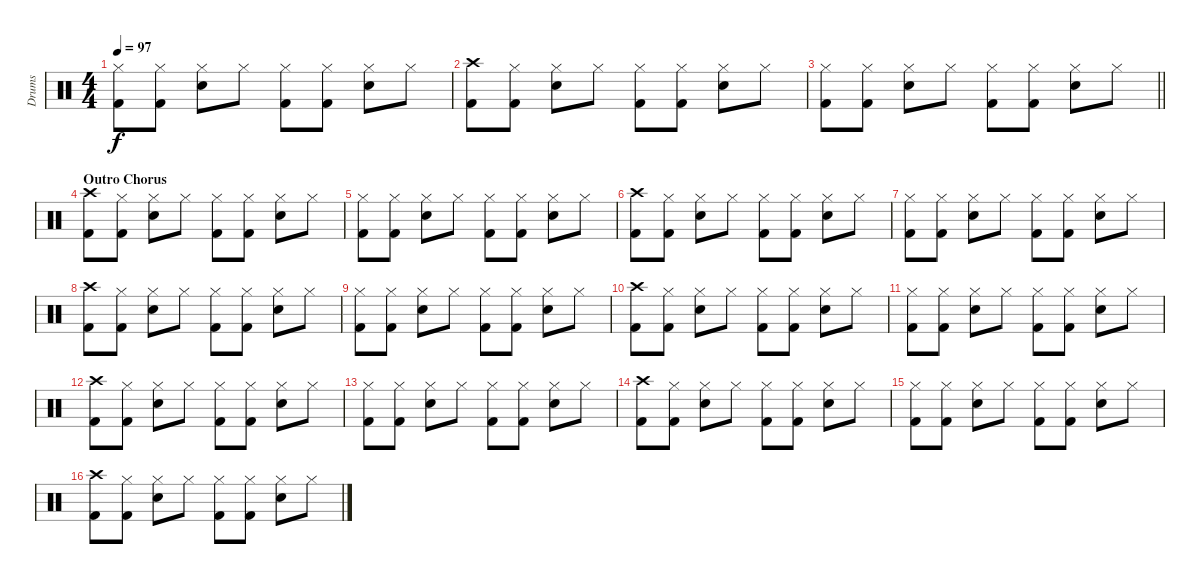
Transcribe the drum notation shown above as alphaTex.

\track ("Drums" "Drums") {instrument percussion}
\staff {score}
\articulation defaults
\ts (4 4)
\tempo 97
\clef neutral
\ks c
("Hi-Hat (closed)" "Kick (hit) 2").8{dy f} ("Hi-Hat (closed)" "Kick (hit) 2").8 ("Hi-Hat (closed)" "Electric Snare (hit)").8 "Hi-Hat (closed)".8 ("Hi-Hat (closed)" "Kick (hit) 2").8 ("Hi-Hat (closed)" "Kick (hit) 2").8 ("Hi-Hat (closed)" "Electric Snare (hit)").8 "Hi-Hat (closed)".8 |
("Crash high (hit)" "Kick (hit) 2").8 ("Hi-Hat (closed)" "Kick (hit) 2").8 ("Hi-Hat (closed)" "Electric Snare (hit)").8 "Hi-Hat (closed)".8 ("Hi-Hat (closed)" "Kick (hit) 2").8 ("Hi-Hat (closed)" "Kick (hit) 2").8 ("Hi-Hat (closed)" "Electric Snare (hit)").8 "Hi-Hat (closed)".8 |
\barLineRight lightlight
("Hi-Hat (closed)" "Kick (hit) 2").8 ("Hi-Hat (closed)" "Kick (hit) 2").8 ("Hi-Hat (closed)" "Electric Snare (hit)").8 "Hi-Hat (closed)".8 ("Hi-Hat (closed)" "Kick (hit) 2").8 ("Hi-Hat (closed)" "Kick (hit) 2").8 ("Hi-Hat (closed)" "Electric Snare (hit)").8 "Hi-Hat (closed)".8 |
\section ("" "Outro Chorus")
("Crash high (hit)" "Kick (hit) 2").8 ("Hi-Hat (closed)" "Kick (hit) 2").8 ("Hi-Hat (closed)" "Electric Snare (hit)").8 "Hi-Hat (closed)".8 ("Hi-Hat (closed)" "Kick (hit) 2").8 ("Hi-Hat (closed)" "Kick (hit) 2").8 ("Hi-Hat (closed)" "Electric Snare (hit)").8 "Hi-Hat (closed)".8 |
("Hi-Hat (closed)" "Kick (hit) 2").8 ("Hi-Hat (closed)" "Kick (hit) 2").8 ("Hi-Hat (closed)" "Electric Snare (hit)").8 "Hi-Hat (closed)".8 ("Hi-Hat (closed)" "Kick (hit) 2").8 ("Hi-Hat (closed)" "Kick (hit) 2").8 ("Hi-Hat (closed)" "Electric Snare (hit)").8 "Hi-Hat (closed)".8 |
("Crash high (hit)" "Kick (hit) 2").8 ("Hi-Hat (closed)" "Kick (hit) 2").8 ("Hi-Hat (closed)" "Electric Snare (hit)").8 "Hi-Hat (closed)".8 ("Hi-Hat (closed)" "Kick (hit) 2").8 ("Hi-Hat (closed)" "Kick (hit) 2").8 ("Hi-Hat (closed)" "Electric Snare (hit)").8 "Hi-Hat (closed)".8 |
("Hi-Hat (closed)" "Kick (hit) 2").8 ("Hi-Hat (closed)" "Kick (hit) 2").8 ("Hi-Hat (closed)" "Electric Snare (hit)").8 "Hi-Hat (closed)".8 ("Hi-Hat (closed)" "Kick (hit) 2").8 ("Hi-Hat (closed)" "Kick (hit) 2").8 ("Hi-Hat (closed)" "Electric Snare (hit)").8 "Hi-Hat (closed)".8 |
("Crash high (hit)" "Kick (hit) 2").8 ("Hi-Hat (closed)" "Kick (hit) 2").8 ("Hi-Hat (closed)" "Electric Snare (hit)").8 "Hi-Hat (closed)".8 ("Hi-Hat (closed)" "Kick (hit) 2").8 ("Hi-Hat (closed)" "Kick (hit) 2").8 ("Hi-Hat (closed)" "Electric Snare (hit)").8 "Hi-Hat (closed)".8 |
("Hi-Hat (closed)" "Kick (hit) 2").8 ("Hi-Hat (closed)" "Kick (hit) 2").8 ("Hi-Hat (closed)" "Electric Snare (hit)").8 "Hi-Hat (closed)".8 ("Hi-Hat (closed)" "Kick (hit) 2").8 ("Hi-Hat (closed)" "Kick (hit) 2").8 ("Hi-Hat (closed)" "Electric Snare (hit)").8 "Hi-Hat (closed)".8 |
("Crash high (hit)" "Kick (hit) 2").8 ("Hi-Hat (closed)" "Kick (hit) 2").8 ("Hi-Hat (closed)" "Electric Snare (hit)").8 "Hi-Hat (closed)".8 ("Hi-Hat (closed)" "Kick (hit) 2").8 ("Hi-Hat (closed)" "Kick (hit) 2").8 ("Hi-Hat (closed)" "Electric Snare (hit)").8 "Hi-Hat (closed)".8 |
("Hi-Hat (closed)" "Kick (hit) 2").8 ("Hi-Hat (closed)" "Kick (hit) 2").8 ("Hi-Hat (closed)" "Electric Snare (hit)").8 "Hi-Hat (closed)".8 ("Hi-Hat (closed)" "Kick (hit) 2").8 ("Hi-Hat (closed)" "Kick (hit) 2").8 ("Hi-Hat (closed)" "Electric Snare (hit)").8 "Hi-Hat (closed)".8 |
("Crash high (hit)" "Kick (hit) 2").8 ("Hi-Hat (closed)" "Kick (hit) 2").8 ("Hi-Hat (closed)" "Electric Snare (hit)").8 "Hi-Hat (closed)".8 ("Hi-Hat (closed)" "Kick (hit) 2").8 ("Hi-Hat (closed)" "Kick (hit) 2").8 ("Hi-Hat (closed)" "Electric Snare (hit)").8 "Hi-Hat (closed)".8 |
("Hi-Hat (closed)" "Kick (hit) 2").8 ("Hi-Hat (closed)" "Kick (hit) 2").8 ("Hi-Hat (closed)" "Electric Snare (hit)").8 "Hi-Hat (closed)".8 ("Hi-Hat (closed)" "Kick (hit) 2").8 ("Hi-Hat (closed)" "Kick (hit) 2").8 ("Hi-Hat (closed)" "Electric Snare (hit)").8 "Hi-Hat (closed)".8 |
("Crash high (hit)" "Kick (hit) 2").8 ("Hi-Hat (closed)" "Kick (hit) 2").8 ("Hi-Hat (closed)" "Electric Snare (hit)").8 "Hi-Hat (closed)".8 ("Hi-Hat (closed)" "Kick (hit) 2").8 ("Hi-Hat (closed)" "Kick (hit) 2").8 ("Hi-Hat (closed)" "Electric Snare (hit)").8 "Hi-Hat (closed)".8 |
("Hi-Hat (closed)" "Kick (hit) 2").8 ("Hi-Hat (closed)" "Kick (hit) 2").8 ("Hi-Hat (closed)" "Electric Snare (hit)").8 "Hi-Hat (closed)".8 ("Hi-Hat (closed)" "Kick (hit) 2").8 ("Hi-Hat (closed)" "Kick (hit) 2").8 ("Hi-Hat (closed)" "Electric Snare (hit)").8 "Hi-Hat (closed)".8 |
("Crash high (hit)" "Kick (hit) 2").8 ("Hi-Hat (closed)" "Kick (hit) 2").8 ("Hi-Hat (closed)" "Electric Snare (hit)").8 "Hi-Hat (closed)".8 ("Hi-Hat (closed)" "Kick (hit) 2").8 ("Hi-Hat (closed)" "Kick (hit) 2").8 ("Hi-Hat (closed)" "Electric Snare (hit)").8 "Hi-Hat (closed)".8
